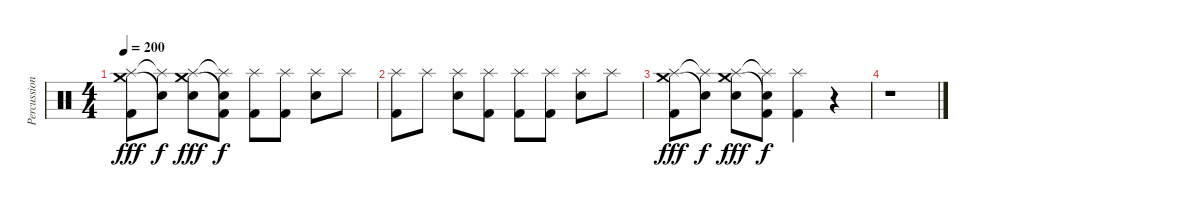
\track ("Percussions" "Percussion") {instrument percussion}
\staff {score}
\articulation defaults
\ts (4 4)
\tempo 200
\clef neutral
\ks c
("Splash (hit)" "Crash medium (hit)" "Kick (hit) 2").8{dy fff} ("Splash (hit)"{t} "Snare (hit)"{t}).8{dy f} ("Splash (hit)" "Crash medium (hit)" "Electric Snare (hit)").8{dy fff} ("Splash (hit)"{t} "Snare (hit)"{t} "Kick (hit) 2").8{dy f} ("Splash (hit)" "Kick (hit) 2").8 ("Splash (hit)" "Kick (hit) 2").8 ("Splash (hit)" "Electric Snare (hit)").8 "Splash (hit)".8 |
("Splash (hit)" "Kick (hit) 2").8 "Splash (hit)".8 ("Splash (hit)" "Electric Snare (hit)").8 ("Splash (hit)" "Kick (hit) 2").8 ("Splash (hit)" "Kick (hit) 2").8 ("Splash (hit)" "Kick (hit) 2").8 ("Splash (hit)" "Electric Snare (hit)").8 "Splash (hit)".8 |
("Splash (hit)" "Crash medium (hit)" "Kick (hit) 2").8{dy fff} ("Splash (hit)"{t} "Snare (hit)"{t}).8{dy f} ("Splash (hit)" "Crash medium (hit)" "Electric Snare (hit)").8{dy fff} ("Splash (hit)"{t} "Snare (hit)"{t} "Kick (hit) 2").8{dy f} ("Splash (hit)" "Kick (hit) 2").4 r.4 |
r.1
